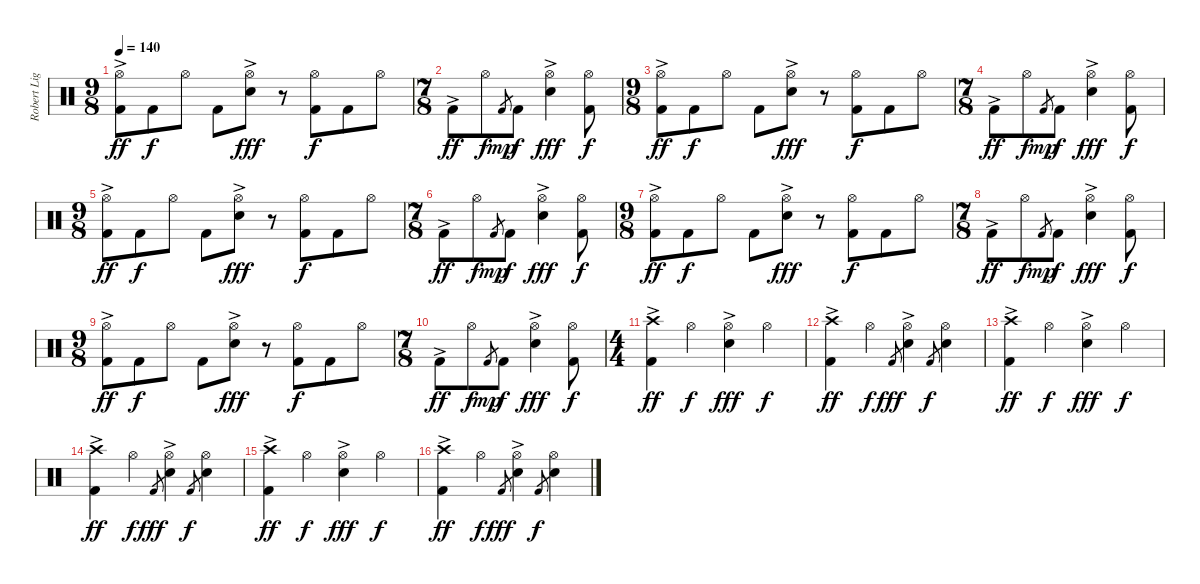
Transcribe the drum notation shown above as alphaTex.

\track ("Robert Ligiewicz (Perkusja)" "Robert Lig") {instrument percussion}
\staff {score}
\articulation defaults
\ts (9 8)
\tempo 140
\clef neutral
\ks c
("Hi-Hat (open)" "Kick (hit) 2"{ac}).8{dy ff} "Kick (hit) 2".8{dy f} "Hi-Hat (open)".8 "Kick (hit) 2".8 ("Hi-Hat (open)" "Electric Snare (hit)"{ac}).8{dy fff} r.8 ("Hi-Hat (open)" "Kick (hit) 2").8{dy f} "Kick (hit) 2".8 "Hi-Hat (open)".8 |
\ts (7 8)
"Kick (hit) 2"{ac}.8{dy ff} "Hi-Hat (open)".8{dy f} "Kick (hit) 2".8{gr dy mp} "Kick (hit) 2".8{dy f} ("Hi-Hat (open)" "Electric Snare (hit)"{ac}).4{dy fff} ("Hi-Hat (open)" "Kick (hit) 2").8{dy f} |
\ts (9 8)
("Hi-Hat (open)" "Kick (hit) 2"{ac}).8{dy ff} "Kick (hit) 2".8{dy f} "Hi-Hat (open)".8 "Kick (hit) 2".8 ("Hi-Hat (open)" "Electric Snare (hit)"{ac}).8{dy fff} r.8 ("Hi-Hat (open)" "Kick (hit) 2").8{dy f} "Kick (hit) 2".8 "Hi-Hat (open)".8 |
\ts (7 8)
"Kick (hit) 2"{ac}.8{dy ff} "Hi-Hat (open)".8{dy f} "Kick (hit) 2".8{gr dy mp} "Kick (hit) 2".8{dy f} ("Hi-Hat (open)" "Electric Snare (hit)"{ac}).4{dy fff} ("Hi-Hat (open)" "Kick (hit) 2").8{dy f} |
\ts (9 8)
("Hi-Hat (open)" "Kick (hit) 2"{ac}).8{dy ff} "Kick (hit) 2".8{dy f} "Hi-Hat (open)".8 "Kick (hit) 2".8 ("Hi-Hat (open)" "Electric Snare (hit)"{ac}).8{dy fff} r.8 ("Hi-Hat (open)" "Kick (hit) 2").8{dy f} "Kick (hit) 2".8 "Hi-Hat (open)".8 |
\ts (7 8)
"Kick (hit) 2"{ac}.8{dy ff} "Hi-Hat (open)".8{dy f} "Kick (hit) 2".8{gr dy mp} "Kick (hit) 2".8{dy f} ("Hi-Hat (open)" "Electric Snare (hit)"{ac}).4{dy fff} ("Hi-Hat (open)" "Kick (hit) 2").8{dy f} |
\ts (9 8)
("Hi-Hat (open)" "Kick (hit) 2"{ac}).8{dy ff} "Kick (hit) 2".8{dy f} "Hi-Hat (open)".8 "Kick (hit) 2".8 ("Hi-Hat (open)" "Electric Snare (hit)"{ac}).8{dy fff} r.8 ("Hi-Hat (open)" "Kick (hit) 2").8{dy f} "Kick (hit) 2".8 "Hi-Hat (open)".8 |
\ts (7 8)
"Kick (hit) 2"{ac}.8{dy ff} "Hi-Hat (open)".8{dy f} "Kick (hit) 2".8{gr dy mp} "Kick (hit) 2".8{dy f} ("Hi-Hat (open)" "Electric Snare (hit)"{ac}).4{dy fff} ("Hi-Hat (open)" "Kick (hit) 2").8{dy f} |
\ts (9 8)
("Hi-Hat (open)" "Kick (hit) 2"{ac}).8{dy ff} "Kick (hit) 2".8{dy f} "Hi-Hat (open)".8 "Kick (hit) 2".8 ("Hi-Hat (open)" "Electric Snare (hit)"{ac}).8{dy fff} r.8 ("Hi-Hat (open)" "Kick (hit) 2").8{dy f} "Kick (hit) 2".8 "Hi-Hat (open)".8 |
\ts (7 8)
"Kick (hit) 2"{ac}.8{dy ff} "Hi-Hat (open)".8{dy f} "Kick (hit) 2".8{gr dy mp} "Kick (hit) 2".8{dy f} ("Hi-Hat (open)" "Electric Snare (hit)"{ac}).4{dy fff} ("Hi-Hat (open)" "Kick (hit) 2").8{dy f} |
\ts (4 4)
("Crash high (hit)" "Kick (hit) 2"{ac}).4{dy ff} "Hi-Hat (open)".4{dy f} ("Hi-Hat (open)" "Electric Snare (hit)"{ac}).4{dy fff} "Hi-Hat (open)".4{dy f} |
("Crash high (hit)" "Kick (hit) 2"{ac}).4{dy ff} "Hi-Hat (open)".4{dy f} "Kick (hit) 2".8{gr dy fff} ("Hi-Hat (open)" "Electric Snare (hit)"{ac}).4 "Kick (hit) 2".8{gr dy f} ("Hi-Hat (open)" "Electric Snare (hit)").4 |
("Crash high (hit)" "Kick (hit) 2"{ac}).4{dy ff} "Hi-Hat (open)".4{dy f} ("Hi-Hat (open)" "Electric Snare (hit)"{ac}).4{dy fff} "Hi-Hat (open)".4{dy f} |
("Crash high (hit)" "Kick (hit) 2"{ac}).4{dy ff} "Hi-Hat (open)".4{dy f} "Kick (hit) 2".8{gr dy fff} ("Hi-Hat (open)" "Electric Snare (hit)"{ac}).4 "Kick (hit) 2".8{gr dy f} ("Hi-Hat (open)" "Electric Snare (hit)").4 |
("Crash high (hit)" "Kick (hit) 2"{ac}).4{dy ff} "Hi-Hat (open)".4{dy f} ("Hi-Hat (open)" "Electric Snare (hit)"{ac}).4{dy fff} "Hi-Hat (open)".4{dy f} |
("Crash high (hit)" "Kick (hit) 2"{ac}).4{dy ff} "Hi-Hat (open)".4{dy f} "Kick (hit) 2".8{gr dy fff} ("Hi-Hat (open)" "Electric Snare (hit)"{ac}).4 "Kick (hit) 2".8{gr dy f} ("Hi-Hat (open)" "Electric Snare (hit)").4
